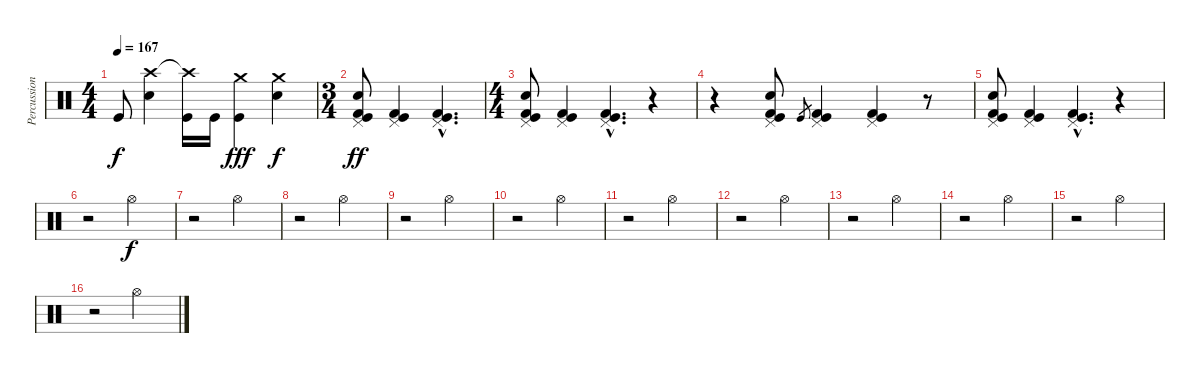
\track ("Percussions" "Percussion") {instrument percussion}
\staff {score}
\articulation defaults
\ts (4 4)
\tempo 167
\clef neutral
\ks c "Kick (hit)".8{dy f}
("Crash high (hit)" "Electric Snare (hit)").4 ("Crash high (hit)"{t} "Kick (hit)").16 "Kick (hit)".16 ("Crash medium (hit)" "Kick (hit)").4{dy fff} ("Crash medium (hit)" "Electric Snare (hit)").4{dy f} |
\ts (3 4)
("Pedal Hi-Hat (hit)" "Electric Snare (hit)" "Kick (hit) 2" "Kick (hit)").8{dy ff} ("Pedal Hi-Hat (hit)" "Kick (hit) 2" "Kick (hit)").4 ("Pedal Hi-Hat (hit)"{hac} "Kick (hit) 2"{hac} "Kick (hit)"{hac}).4{d} |
\ts (4 4)
("Pedal Hi-Hat (hit)" "Electric Snare (hit)" "Kick (hit) 2" "Kick (hit)").8 ("Pedal Hi-Hat (hit)" "Kick (hit) 2" "Kick (hit)").4 ("Pedal Hi-Hat (hit)"{hac} "Kick (hit) 2"{hac} "Kick (hit)"{hac}).4{d} r.4 |
r.4 ("Pedal Hi-Hat (hit)" "Electric Snare (hit)" "Kick (hit) 2" "Kick (hit)").8 "Kick (hit)".8{gr} ("Pedal Hi-Hat (hit)" "Kick (hit) 2" "Kick (hit)").4 ("Pedal Hi-Hat (hit)" "Kick (hit) 2" "Kick (hit)").4 r.8 |
("Pedal Hi-Hat (hit)" "Electric Snare (hit)" "Kick (hit) 2" "Kick (hit)").8 ("Pedal Hi-Hat (hit)" "Kick (hit) 2" "Kick (hit)").4 ("Pedal Hi-Hat (hit)"{hac} "Kick (hit) 2"{hac} "Kick (hit)"{hac}).4{d} r.4 |
r.2{volume 9} "Hi-Hat (open)".2{dy f} |
r.2 "Hi-Hat (open)".2 |
r.2{volume 9} "Hi-Hat (open)".2 |
r.2 "Hi-Hat (open)".2 |
r.2{volume 9} "Hi-Hat (open)".2 |
r.2 "Hi-Hat (open)".2 |
r.2{volume 9} "Hi-Hat (open)".2 |
r.2 "Hi-Hat (open)".2 |
r.2{volume 9} "Hi-Hat (open)".2 |
r.2 "Hi-Hat (open)".2 |
r.2{volume 9} "Hi-Hat (open)".2
